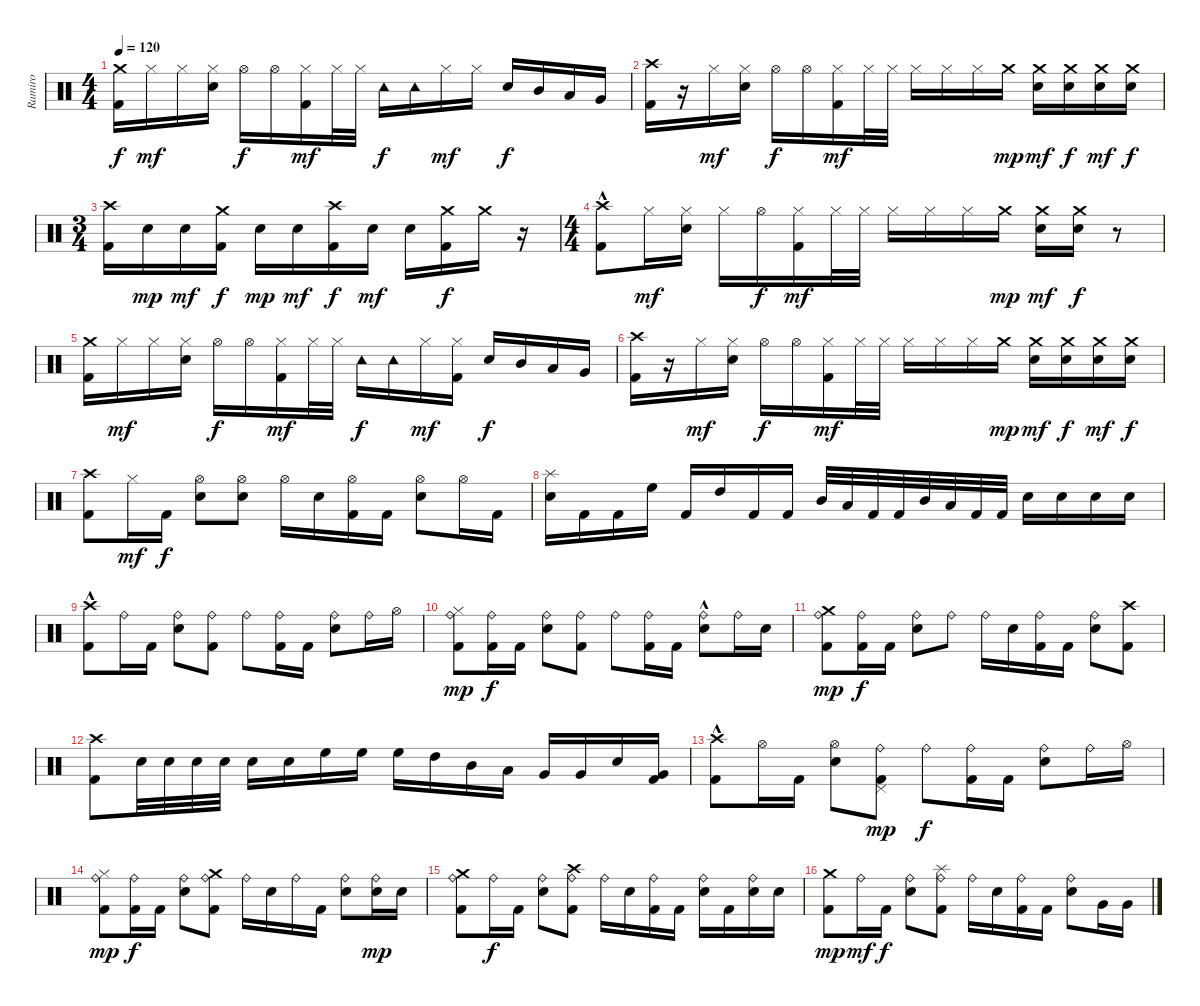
\track ("Ramiro" "Ramiro") {instrument percussion}
\staff {score}
\articulation defaults
\ts (4 4)
\tempo 120
\clef neutral
\ks c
("Kick (hit) 2" "Crash medium (hit)").16{dy f} "Hi-Hat (closed)".16{dy mf} "Hi-Hat (closed)".16 ("Electric Snare (hit)" "Hi-Hat (closed)").16 "Hi-Hat (open)".16{dy f} "Hi-Hat (open)".16 ("Kick (hit) 2" "Hi-Hat (closed)").16{dy mf} "Hi-Hat (closed)".32 "Hi-Hat (closed)".32 "Tambourine (hit)".16{dy f} "Tambourine (hit)".16 "Hi-Hat (closed)".16{dy mf} "Hi-Hat (closed)".16 "Electric Snare (hit)".16{dy f} "Mid Tom (hit)".16 "Low Tom (hit)".16 "Very Low Tom (hit)".16 |
("Kick (hit) 2" "Crash high (hit)").16 r.16 "Hi-Hat (closed)".16{dy mf} ("Electric Snare (hit)" "Hi-Hat (closed)").16 "Hi-Hat (open)".16{dy f} "Hi-Hat (open)".16 ("Kick (hit) 2" "Hi-Hat (closed)").16{dy mf} "Hi-Hat (closed)".32 "Hi-Hat (closed)".32 "Hi-Hat (closed)".16 "Hi-Hat (closed)".16 "Hi-Hat (closed)".16 "Crash medium (hit)".16{dy mp} ("Electric Snare (hit)" "Crash medium (hit)").16{dy mf} ("Electric Snare (hit)" "Crash medium (hit)").16{dy f} ("Crash medium (hit)" "Electric Snare (hit)").16{dy mf} ("Electric Snare (hit)" "Crash medium (hit)").16{dy f} |
\ts (3 4)
("Kick (hit) 2" "Crash high (hit)").16 "Electric Snare (hit)".16{dy mp} "Electric Snare (hit)".16{dy mf} ("Kick (hit) 2" "Crash medium (hit)").16{dy f} "Electric Snare (hit)".16{dy mp} "Electric Snare (hit)".16{dy mf} ("Kick (hit) 2" "Crash high (hit)").16{dy f} "Electric Snare (hit)".16{dy mf} "Electric Snare (hit)".16 ("Kick (hit) 2" "Crash medium (hit)").16{dy f} "Crash medium (hit)".16 r.16 |
\ts (4 4)
("Kick (hit) 2"{hac} "Crash high (hit)").8 "Hi-Hat (closed)".16{dy mf} ("Electric Snare (hit)" "Hi-Hat (closed)").16 "Hi-Hat (closed)".16 "Hi-Hat (open)".16{dy f} ("Kick (hit) 2" "Hi-Hat (closed)").16{dy mf} "Hi-Hat (closed)".32 "Hi-Hat (closed)".32 "Hi-Hat (closed)".16 "Hi-Hat (closed)".16 "Hi-Hat (closed)".16 "Crash medium (hit)".16{dy mp} ("Electric Snare (hit)" "Crash medium (hit)").16{dy mf} ("Electric Snare (hit)" "Crash medium (hit)").16{dy f} r.8 |
("Crash medium (hit)" "Kick (hit) 2").16 "Hi-Hat (closed)".16{dy mf} "Hi-Hat (closed)".16 ("Electric Snare (hit)" "Hi-Hat (closed)").16 "Hi-Hat (open)".16{dy f} "Hi-Hat (open)".16 ("Kick (hit) 2" "Hi-Hat (closed)").16{dy mf} "Hi-Hat (closed)".32 "Hi-Hat (closed)".32 "Tambourine (hit)".16{dy f} "Tambourine (hit)".16 "Hi-Hat (closed)".16{dy mf} ("Kick (hit) 2" "Hi-Hat (closed)").16 "Electric Snare (hit)".16{dy f} "Mid Tom (hit)".16 "Low Tom (hit)".16 "Very Low Tom (hit)".16 |
("Crash high (hit)" "Kick (hit) 2").16 r.16 "Hi-Hat (closed)".16{dy mf} ("Electric Snare (hit)" "Hi-Hat (closed)").16 "Hi-Hat (open)".16{dy f} "Hi-Hat (open)".16 ("Kick (hit) 2" "Hi-Hat (closed)").16{dy mf} "Hi-Hat (closed)".32 "Hi-Hat (closed)".32 "Hi-Hat (closed)".16 "Hi-Hat (closed)".16 "Hi-Hat (closed)".16 "Crash medium (hit)".16{dy mp} ("Electric Snare (hit)" "Crash medium (hit)").16{dy mf} ("Electric Snare (hit)" "Crash medium (hit)").16{dy f} ("Crash medium (hit)" "Electric Snare (hit)").16{dy mf} ("Electric Snare (hit)" "Crash medium (hit)").16{dy f} |
("Crash high (hit)" "Kick (hit) 2").8 "Hi-Hat (closed)".16{dy mf} "Kick (hit) 2".16{dy f} ("Electric Snare (hit)" "Hi-Hat (open)").8 ("Hi-Hat (open)" "Electric Snare (hit)").8 "Hi-Hat (open)".16 "Electric Snare (hit)".16 ("Hi-Hat (open)" "Kick (hit) 2").16 "Kick (hit) 2".16 ("Electric Snare (hit)" "Hi-Hat (open)").8 "Hi-Hat (open)".16 "Kick (hit) 2".16 |
("Electric Snare (hit)" "Splash (hit)").16 "Kick (hit) 2".16 "Kick (hit) 2".16 "High Floor Tom (hit)".16 "Kick (hit) 2".16 "High Tom (hit)".16 "Kick (hit) 2".16 "Kick (hit) 2".16 "Mid Tom (hit)".32 "Low Tom (hit)".32 "Kick (hit) 2".32 "Kick (hit) 2".32 "Mid Tom (hit)".32 "Low Tom (hit)".32 "Kick (hit) 2".32 "Kick (hit) 2".32 "Electric Snare (hit)".16 "Electric Snare (hit)".16 "Electric Snare (hit)".16 "Electric Snare (hit)".16 |
("Crash high (hit)" "Kick (hit) 2"{hac}).8 "Ride (bell)".16 "Kick (hit) 2".16 ("Electric Snare (hit)" "Ride (bell)").8 ("Kick (hit) 2" "Ride (bell)").8 "Ride (bell)".8 ("Kick (hit) 2" "Ride (bell)").16 "Kick (hit) 2".16 ("Electric Snare (hit)" "Ride (bell)").8 "Ride (bell)".16 "Hi-Hat (open)".16 |
("Ride (bell)" "Hi-Hat (closed)" "Kick (hit) 2").8{dy mp} ("Ride (bell)" "Kick (hit) 2").16{dy f} "Kick (hit) 2".16 ("Electric Snare (hit)" "Ride (bell)").8 ("Kick (hit) 2" "Ride (bell)").8 "Ride (bell)".8 ("Kick (hit) 2" "Ride (bell)").16 "Kick (hit) 2".16 ("Ride (bell)" "Electric Snare (hit)"{hac}).8 "Ride (bell)".16 "Electric Snare (hit)".16 |
("Kick (hit) 2" "Ride (bell)" "Crash medium (hit)").8{dy mp} ("Ride (bell)" "Kick (hit) 2").16{dy f} "Kick (hit) 2".16 ("Electric Snare (hit)" "Ride (bell)").8 "Ride (bell)".8 "Ride (bell)".16 "Electric Snare (hit)".16 ("Kick (hit) 2" "Ride (bell)").16 "Kick (hit) 2".16 ("Ride (bell)" "Electric Snare (hit)").8 ("Crash high (hit)" "Kick (hit) 2").8 |
("Kick (hit) 2" "Crash high (hit)").8 "Electric Snare (hit)".32 "Electric Snare (hit)".32 "Electric Snare (hit)".32 "Electric Snare (hit)".32 "Electric Snare (hit)".16 "Electric Snare (hit)".16 "High Floor Tom (hit)".16 "High Floor Tom (hit)".16 "High Floor Tom (hit)".16 "High Tom (hit)".16 "Mid Tom (hit)".16 "Low Tom (hit)".16 "Very Low Tom (hit)".16 "Very Low Tom (hit)".16 "Electric Snare (hit)".16 ("Very Low Tom (hit)" "Kick (hit) 2").16 |
("Kick (hit) 2"{hac} "Crash high (hit)").8 "Hi-Hat (open)".16 "Kick (hit) 2".16 ("Electric Snare (hit)" "Hi-Hat (open)").8 ("Kick (hit) 2" "Pedal Hi-Hat (hit)" "Ride (bell)").8{dy mp} "Ride (bell)".8{dy f} ("Kick (hit) 2" "Ride (bell)").16 "Kick (hit) 2".16 ("Electric Snare (hit)" "Ride (bell)").8 "Ride (bell)".16 "Hi-Hat (open)".16 |
("Ride (bell)" "Hi-Hat (closed)" "Kick (hit) 2").8{dy mp} ("Ride (bell)" "Kick (hit) 2").16{dy f} "Kick (hit) 2".16 ("Electric Snare (hit)" "Ride (bell)").8 ("Kick (hit) 2" "Ride (bell)" "Crash medium (hit)").8 "Ride (bell)".16 "Electric Snare (hit)".16 "Ride (bell)".16 "Kick (hit) 2".16 ("Ride (bell)" "Electric Snare (hit)").8 ("Ride (bell)" "Electric Snare (hit)").16{dy mp} "Electric Snare (hit)".16 |
("Kick (hit) 2" "Ride (bell)" "Crash medium (hit)").8 "Ride (bell)".16{dy f} "Kick (hit) 2".16 ("Electric Snare (hit)" "Ride (bell)").8 ("Ride (bell)" "Kick (hit) 2" "Crash high (hit)").8 "Ride (bell)".16 "Electric Snare (hit)".16 ("Kick (hit) 2" "Ride (bell)").16 "Kick (hit) 2".16 ("Ride (bell)" "Electric Snare (hit)").16 "Kick (hit) 2".16 ("Electric Snare (hit)" "Ride (bell)").16 "Electric Snare (hit)".16 |
("Crash medium (hit)" "Kick (hit) 2").8{dy mp} "Ride (bell)".16{dy mf} "Kick (hit) 2".16{dy f} ("Electric Snare (hit)" "Ride (bell)").8 ("Ride (bell)" "Kick (hit) 2" "Splash (hit)").8 "Ride (bell)".16 "Electric Snare (hit)".16 ("Kick (hit) 2" "Ride (bell)").16 "Kick (hit) 2".16 ("Ride (bell)" "Electric Snare (hit)").8 "Very Low Tom (hit)".16 "Very Low Tom (hit)".16
